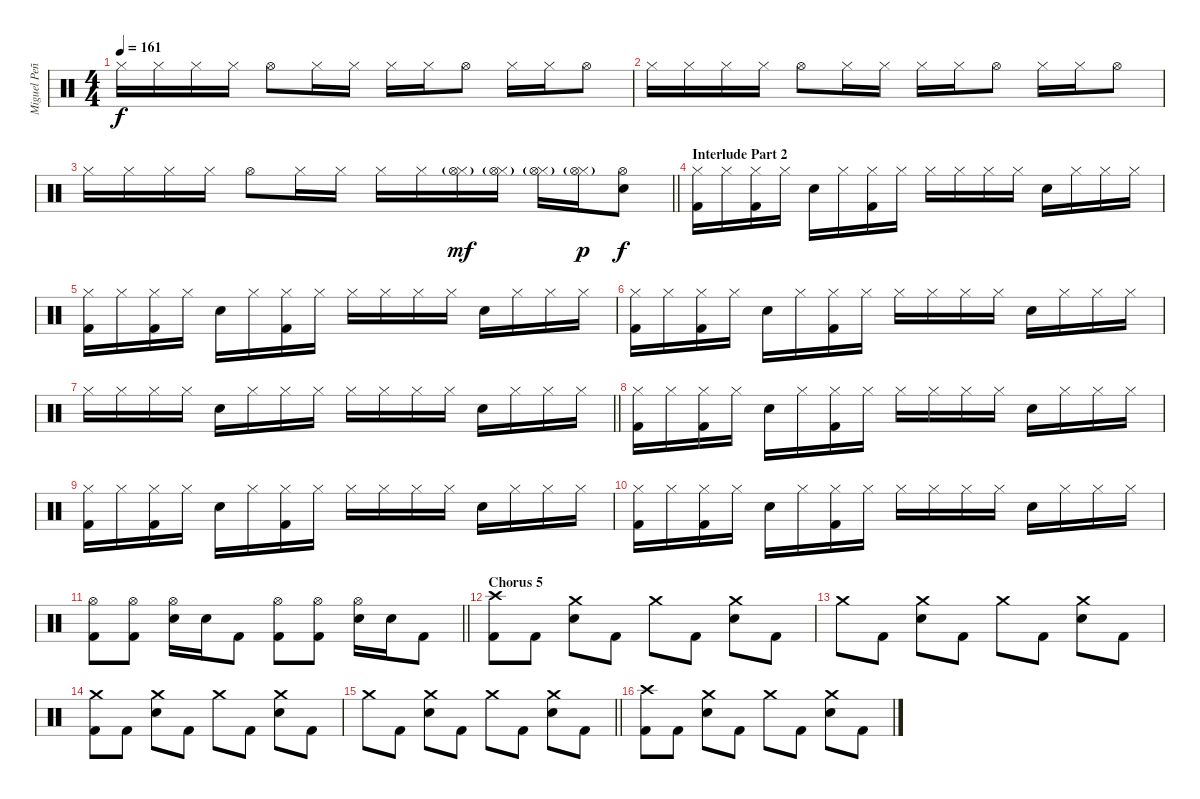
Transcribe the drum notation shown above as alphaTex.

\track ("Miguel Peñas" "Miguel Peñ") {instrument percussion}
\staff {score}
\articulation defaults
\ts (4 4)
\tempo 161
\clef neutral
\ks c "Hi-Hat (closed)".16{dy f} "Hi-Hat (closed)".16 "Hi-Hat (closed)".16 "Hi-Hat (closed)".16 "Hi-Hat (open)".8 "Hi-Hat (closed)".16 "Hi-Hat (closed)".16 "Hi-Hat (closed)".16 "Hi-Hat (closed)".16 "Hi-Hat (open)".8 "Hi-Hat (closed)".16 "Hi-Hat (closed)".16 "Hi-Hat (open)".8
|
"Hi-Hat (closed)".16 "Hi-Hat (closed)".16 "Hi-Hat (closed)".16 "Hi-Hat (closed)".16 "Hi-Hat (open)".8 "Hi-Hat (closed)".16 "Hi-Hat (closed)".16 "Hi-Hat (closed)".16 "Hi-Hat (closed)".16 "Hi-Hat (open)".8 "Hi-Hat (closed)".16 "Hi-Hat (closed)".16 "Hi-Hat (open)".8 |
\barLineRight lightlight "Hi-Hat (closed)".16 "Hi-Hat (closed)".16 "Hi-Hat (closed)".16 "Hi-Hat (closed)".16 "Hi-Hat (open)".8 "Hi-Hat (closed)".16 "Hi-Hat (closed)".16 "Hi-Hat (closed)".16 "Hi-Hat (closed)".16
("Hi-Hat (closed)" "Hi-Hat (open)"{g}).16{dy mf} ("Hi-Hat (closed)"{g} "Hi-Hat (open)"{g}).16 ("Hi-Hat (closed)"{g} "Hi-Hat (open)"{g}).16 ("Hi-Hat (closed)"{g} "Hi-Hat (open)").16{dy p} ("Hi-Hat (open)" "Electric Snare (hit)").8{dy f} |
\section ("" "Interlude Part 2")
("Hi-Hat (closed)" "Kick (hit) 2").16 "Hi-Hat (closed)".16 ("Hi-Hat (closed)" "Kick (hit) 2").16 "Hi-Hat (closed)".16 "Electric Snare (hit)".16 "Hi-Hat (closed)".16 ("Hi-Hat (closed)" "Kick (hit) 2").16 "Hi-Hat (closed)".16 "Hi-Hat (closed)".16 "Hi-Hat (closed)".16 "Hi-Hat (closed)".16 "Hi-Hat (closed)".16 "Electric Snare (hit)".16 "Hi-Hat (closed)".16 "Hi-Hat (closed)".16 "Hi-Hat (closed)".16 |
("Hi-Hat (closed)" "Kick (hit) 2").16 "Hi-Hat (closed)".16 ("Hi-Hat (closed)" "Kick (hit) 2").16 "Hi-Hat (closed)".16 "Electric Snare (hit)".16 "Hi-Hat (closed)".16 ("Hi-Hat (closed)" "Kick (hit) 2").16 "Hi-Hat (closed)".16 "Hi-Hat (closed)".16 "Hi-Hat (closed)".16 "Hi-Hat (closed)".16 "Hi-Hat (closed)".16 "Electric Snare (hit)".16 "Hi-Hat (closed)".16 "Hi-Hat (closed)".16 "Hi-Hat (closed)".16 |
("Hi-Hat (closed)" "Kick (hit) 2").16 "Hi-Hat (closed)".16 ("Hi-Hat (closed)" "Kick (hit) 2").16 "Hi-Hat (closed)".16 "Electric Snare (hit)".16 "Hi-Hat (closed)".16 ("Hi-Hat (closed)" "Kick (hit) 2").16 "Hi-Hat (closed)".16 "Hi-Hat (closed)".16 "Hi-Hat (closed)".16 "Hi-Hat (closed)".16 "Hi-Hat (closed)".16 "Electric Snare (hit)".16 "Hi-Hat (closed)".16 "Hi-Hat (closed)".16 "Hi-Hat (closed)".16 |
\barLineRight lightlight "Hi-Hat (closed)".16 "Hi-Hat (closed)".16 "Hi-Hat (closed)".16 "Hi-Hat (closed)".16 "Electric Snare (hit)".16 "Hi-Hat (closed)".16 "Hi-Hat (closed)".16 "Hi-Hat (closed)".16 "Hi-Hat (closed)".16 "Hi-Hat (closed)".16 "Hi-Hat (closed)".16 "Hi-Hat (closed)".16 "Electric Snare (hit)".16 "Hi-Hat (closed)".16 "Hi-Hat (closed)".16 "Hi-Hat (closed)".16
|
("Hi-Hat (closed)" "Kick (hit) 2").16 "Hi-Hat (closed)".16 ("Hi-Hat (closed)" "Kick (hit) 2").16 "Hi-Hat (closed)".16 "Electric Snare (hit)".16 "Hi-Hat (closed)".16 ("Hi-Hat (closed)" "Kick (hit) 2").16 "Hi-Hat (closed)".16 "Hi-Hat (closed)".16 "Hi-Hat (closed)".16 "Hi-Hat (closed)".16 "Hi-Hat (closed)".16 "Electric Snare (hit)".16 "Hi-Hat (closed)".16 "Hi-Hat (closed)".16 "Hi-Hat (closed)".16 |
("Hi-Hat (closed)" "Kick (hit) 2").16 "Hi-Hat (closed)".16 ("Hi-Hat (closed)" "Kick (hit) 2").16 "Hi-Hat (closed)".16 "Electric Snare (hit)".16 "Hi-Hat (closed)".16 ("Hi-Hat (closed)" "Kick (hit) 2").16 "Hi-Hat (closed)".16 "Hi-Hat (closed)".16 "Hi-Hat (closed)".16 "Hi-Hat (closed)".16 "Hi-Hat (closed)".16 "Electric Snare (hit)".16 "Hi-Hat (closed)".16 "Hi-Hat (closed)".16 "Hi-Hat (closed)".16 |
("Hi-Hat (closed)" "Kick (hit) 2").16 "Hi-Hat (closed)".16 ("Hi-Hat (closed)" "Kick (hit) 2").16 "Hi-Hat (closed)".16 "Electric Snare (hit)".16 "Hi-Hat (closed)".16 ("Hi-Hat (closed)" "Kick (hit) 2").16 "Hi-Hat (closed)".16 "Hi-Hat (closed)".16 "Hi-Hat (closed)".16 "Hi-Hat (closed)".16 "Hi-Hat (closed)".16 "Electric Snare (hit)".16 "Hi-Hat (closed)".16 "Hi-Hat (closed)".16 "Hi-Hat (closed)".16 |
\barLineRight lightlight
("Hi-Hat (open)" "Kick (hit) 2").8 ("Hi-Hat (open)" "Kick (hit) 2").8 ("Hi-Hat (open)" "Electric Snare (hit)").16 "Electric Snare (hit)".16 "Kick (hit) 2".8 ("Hi-Hat (open)" "Kick (hit) 2").8 ("Hi-Hat (open)" "Kick (hit) 2").8 ("Hi-Hat (open)" "Electric Snare (hit)").16 "Electric Snare (hit)".16 "Kick (hit) 2".8 |
\section ("" "Chorus 5")
("Crash high (hit)" "Kick (hit) 2").8 "Kick (hit) 2".8 ("Crash medium (hit)" "Electric Snare (hit)").8 "Kick (hit) 2".8 "Crash medium (hit)".8 "Kick (hit) 2".8 ("Crash medium (hit)" "Electric Snare (hit)").8 "Kick (hit) 2".8 |
"Crash medium (hit)".8 "Kick (hit) 2".8 ("Crash medium (hit)" "Electric Snare (hit)").8 "Kick (hit) 2".8 "Crash medium (hit)".8 "Kick (hit) 2".8 ("Crash medium (hit)" "Electric Snare (hit)").8 "Kick (hit) 2".8 |
("Crash medium (hit)" "Kick (hit) 2").8 "Kick (hit) 2".8 ("Crash medium (hit)" "Electric Snare (hit)").8 "Kick (hit) 2".8 "Crash medium (hit)".8 "Kick (hit) 2".8 ("Crash medium (hit)" "Electric Snare (hit)").8 "Kick (hit) 2".8 |
\barLineRight lightlight "Crash medium (hit)".8 "Kick (hit) 2".8
("Crash medium (hit)" "Electric Snare (hit)").8 "Kick (hit) 2".8 "Crash medium (hit)".8 "Kick (hit) 2".8 ("Crash medium (hit)" "Electric Snare (hit)").8 "Kick (hit) 2".8 |
("Crash high (hit)" "Kick (hit) 2").8 "Kick (hit) 2".8 ("Crash medium (hit)" "Electric Snare (hit)").8 "Kick (hit) 2".8 "Crash medium (hit)".8 "Kick (hit) 2".8 ("Crash medium (hit)" "Electric Snare (hit)").8 "Kick (hit) 2".8
